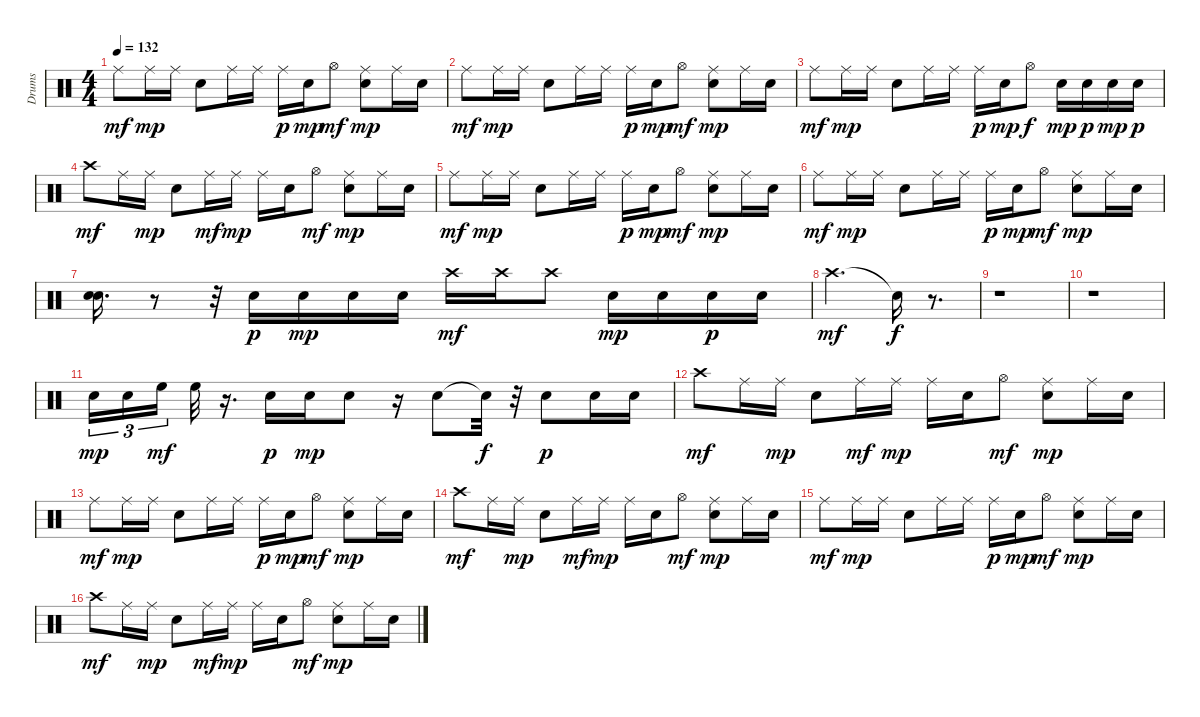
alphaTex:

\track ("Drums" "Drums") {instrument percussion}
\staff {score}
\articulation defaults
\ts (4 4)
\tempo 132
\clef neutral
\ks c "Ride (middle)".8{dy mf} "Ride (middle)".16{dy mp} "Ride (middle)".16 "Electric Snare (hit)".8 "Ride (middle)".16 "Ride (middle)".16 "Ride (middle)".16{dy p} "Electric Snare (hit)".16{dy mp} "Hi-Hat (open)".8{dy mf}
("Electric Snare (hit)" "Ride (middle)").8{dy mp} "Ride (middle)".16 "Electric Snare (hit)".16 |
"Ride (middle)".8{dy mf} "Ride (middle)".16{dy mp} "Ride (middle)".16 "Electric Snare (hit)".8 "Ride (middle)".16 "Ride (middle)".16 "Ride (middle)".16{dy p} "Electric Snare (hit)".16{dy mp} "Hi-Hat (open)".8{dy mf} ("Electric Snare (hit)" "Ride (middle)").8{dy mp} "Ride (middle)".16 "Electric Snare (hit)".16 |
"Ride (middle)".8{dy mf} "Ride (middle)".16{dy mp} "Ride (middle)".16 "Electric Snare (hit)".8 "Ride (middle)".16 "Ride (middle)".16 "Ride (middle)".16{dy p} "Electric Snare (hit)".16{dy mp} "Hi-Hat (open)".8{dy f} "Electric Snare (hit)".16{dy mp} "Electric Snare (hit)".16{dy p} "Electric Snare (hit)".16{dy mp} "Electric Snare (hit)".16{dy p} |
"Crash high (hit)".8{dy mf} "Ride (middle)".16 "Ride (middle)".16{dy mp} "Electric Snare (hit)".8 "Ride (middle)".16{dy mf} "Ride (middle)".16{dy mp} "Ride (middle)".16 "Electric Snare (hit)".16 "Hi-Hat (open)".8{dy mf} ("Electric Snare (hit)" "Ride (middle)").8{dy mp} "Ride (middle)".16 "Electric Snare (hit)".16 |
"Ride (middle)".8{dy mf} "Ride (middle)".16{dy mp} "Ride (middle)".16 "Electric Snare (hit)".8 "Ride (middle)".16 "Ride (middle)".16 "Ride (middle)".16{dy p} "Electric Snare (hit)".16{dy mp} "Hi-Hat (open)".8{dy mf} ("Electric Snare (hit)" "Ride (middle)").8{dy mp} "Ride (middle)".16 "Electric Snare (hit)".16 |
"Ride (middle)".8{dy mf} "Ride (middle)".16{dy mp} "Ride (middle)".16 "Electric Snare (hit)".8 "Ride (middle)".16 "Ride (middle)".16 "Ride (middle)".16{dy p} "Electric Snare (hit)".16{dy mp} "Hi-Hat (open)".8{dy mf} ("Electric Snare (hit)" "Ride (middle)").8{dy mp} "Ride (middle)".16 "Electric Snare (hit)".16 |
("Electric Snare (hit)" "Electric Snare (hit)").16{d} r.8 r.32 "Electric Snare (hit)".16{dy p} "Electric Snare (hit)".16{dy mp} "Electric Snare (hit)".16 "Electric Snare (hit)".16 "Crash high (hit)".16{dy mf} "Crash high (hit)".16 "Crash high (hit)".8 "Electric Snare (hit)".16{dy mp} "Electric Snare (hit)".16 "Electric Snare (hit)".16{dy p} "Electric Snare (hit)".16 |
"Crash high (hit)".2{d dy mf} "Snare (hit)"{t}.16{dy f} r.8{d} |
r.1 |
r.1 |
"Electric Snare (hit)".16{tu (3 2) dy mp} "Electric Snare (hit)".16{tu (3 2)} "High Floor Tom (hit)".16{tu (3 2) dy mf} "High Floor Tom (hit)".32 r.16{d} "Electric Snare (hit)".16{dy p} "Electric Snare (hit)".16{dy mp} "Electric Snare (hit)".8 r.16 "Electric Snare (hit)".8 "Snare (hit)"{t}.32{dy f} r.32 "Electric Snare (hit)".8{dy p} "Electric Snare (hit)".16 "Electric Snare (hit)".16 |
"Crash high (hit)".8{dy mf} "Ride (middle)".16 "Ride (middle)".16{dy mp} "Electric Snare (hit)".8 "Ride (middle)".16{dy mf} "Ride (middle)".16{dy mp} "Ride (middle)".16 "Electric Snare (hit)".16 "Hi-Hat (open)".8{dy mf} ("Ride (middle)" "Electric Snare (hit)").8{dy mp} "Ride (middle)".16 "Electric Snare (hit)".16 |
"Ride (middle)".8{dy mf} "Ride (middle)".16{dy mp} "Ride (middle)".16 "Electric Snare (hit)".8 "Ride (middle)".16 "Ride (middle)".16 "Ride (middle)".16{dy p} "Electric Snare (hit)".16{dy mp} "Hi-Hat (open)".8{dy mf} ("Ride (middle)" "Electric Snare (hit)").8{dy mp} "Ride (middle)".16 "Electric Snare (hit)".16 |
"Crash high (hit)".8{dy mf} "Ride (middle)".16 "Ride (middle)".16{dy mp} "Electric Snare (hit)".8 "Ride (middle)".16{dy mf} "Ride (middle)".16{dy mp} "Ride (middle)".16 "Electric Snare (hit)".16 "Hi-Hat (open)".8{dy mf} ("Ride (middle)" "Electric Snare (hit)").8{dy mp} "Ride (middle)".16 "Electric Snare (hit)".16 |
"Ride (middle)".8{dy mf} "Ride (middle)".16{dy mp} "Ride (middle)".16 "Electric Snare (hit)".8 "Ride (middle)".16 "Ride (middle)".16 "Ride (middle)".16{dy p} "Electric Snare (hit)".16{dy mp} "Hi-Hat (open)".8{dy mf} ("Ride (middle)" "Electric Snare (hit)").8{dy mp} "Ride (middle)".16 "Electric Snare (hit)".16 |
"Crash high (hit)".8{dy mf} "Ride (middle)".16 "Ride (middle)".16{dy mp} "Electric Snare (hit)".8 "Ride (middle)".16{dy mf} "Ride (middle)".16{dy mp} "Ride (middle)".16 "Electric Snare (hit)".16 "Hi-Hat (open)".8{dy mf} ("Ride (middle)" "Electric Snare (hit)").8{dy mp} "Ride (middle)".16 "Electric Snare (hit)".16
